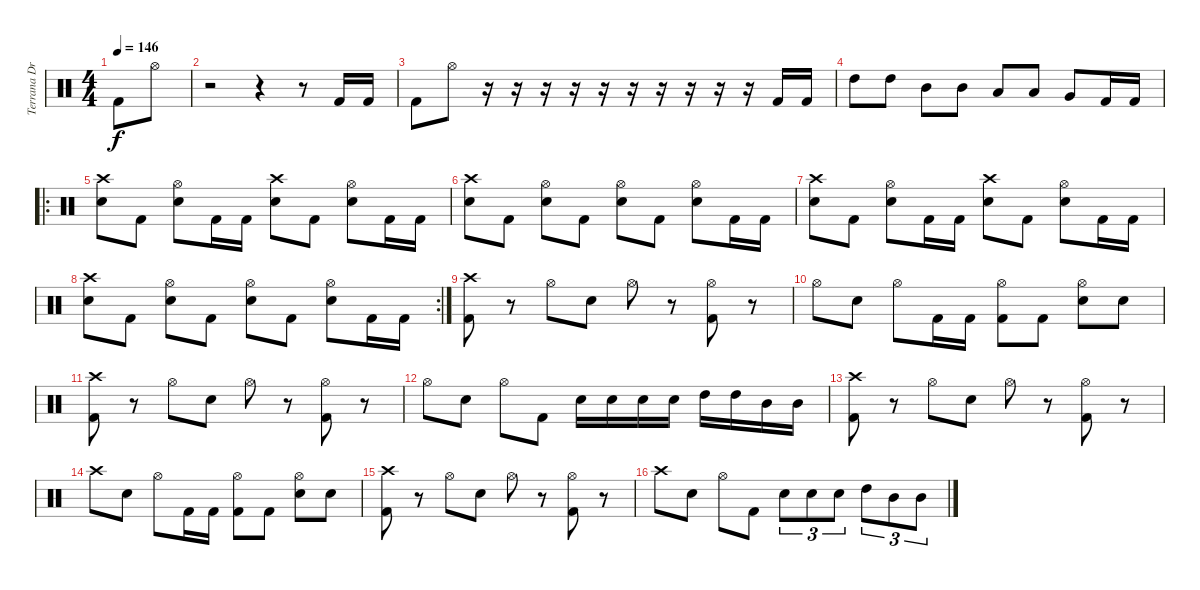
\track ("Terrana Drums" "Terrana Dr") {instrument percussion}
\staff {score}
\articulation defaults
\ts (4 4)
\tempo 146
\clef neutral
\ks c "Kick (hit) 2".8{dy f} "Hi-Hat (open)".8
|
r.2 r.4 r.8 "Kick (hit) 2".16 "Kick (hit) 2".16 |
"Kick (hit) 2".8 "Hi-Hat (open)".8 r.16 r.16 r.16 r.16 r.16 r.16 r.16 r.16 r.16 r.16 "Kick (hit) 2".16 "Kick (hit) 2".16 |
"High Tom (hit)".8 "High Tom (hit)".8 "Mid Tom (hit)".8 "Mid Tom (hit)".8 "Low Tom (hit)".8 "Low Tom (hit)".8 "Very Low Tom (hit)".8 "Kick (hit) 2".16 "Kick (hit) 2".16 |
\ro
("Crash high (hit)" "Electric Snare (hit)").8 "Kick (hit) 2".8 ("Hi-Hat (open)" "Electric Snare (hit)").8 "Kick (hit) 2".16 "Kick (hit) 2".16 ("Crash high (hit)" "Electric Snare (hit)").8 "Kick (hit) 2".8 ("Hi-Hat (open)" "Electric Snare (hit)").8 "Kick (hit) 2".16 "Kick (hit) 2".16 |
("Crash high (hit)" "Electric Snare (hit)").8 "Kick (hit) 2".8 ("Hi-Hat (open)" "Electric Snare (hit)").8 "Kick (hit) 2".8 ("Hi-Hat (open)" "Electric Snare (hit)").8 "Kick (hit) 2".8 ("Hi-Hat (open)" "Electric Snare (hit)").8 "Kick (hit) 2".16 "Kick (hit) 2".16 |
("Crash high (hit)" "Electric Snare (hit)").8 "Kick (hit) 2".8 ("Hi-Hat (open)" "Electric Snare (hit)").8 "Kick (hit) 2".16 "Kick (hit) 2".16 ("Crash high (hit)" "Electric Snare (hit)").8 "Kick (hit) 2".8 ("Hi-Hat (open)" "Electric Snare (hit)").8 "Kick (hit) 2".16 "Kick (hit) 2".16 |
\rc 2
("Crash high (hit)" "Electric Snare (hit)").8 "Kick (hit) 2".8 ("Hi-Hat (open)" "Electric Snare (hit)").8 "Kick (hit) 2".8 ("Hi-Hat (open)" "Electric Snare (hit)").8 "Kick (hit) 2".8 ("Hi-Hat (open)" "Electric Snare (hit)").8 "Kick (hit) 2".16 "Kick (hit) 2".16 |
("Crash high (hit)" "Kick (hit) 2").8 r.8 "Hi-Hat (open)".8 "Electric Snare (hit)".8 "Hi-Hat (open)".8 r.8 ("Hi-Hat (open)" "Kick (hit) 2").8 r.8 |
"Hi-Hat (open)".8 "Electric Snare (hit)".8 "Hi-Hat (open)".8 "Kick (hit) 2".16 "Kick (hit) 2".16 ("Hi-Hat (open)" "Kick (hit) 2").8 "Kick (hit) 2".8 ("Hi-Hat (open)" "Electric Snare (hit)").8 "Electric Snare (hit)".8 |
("Crash high (hit)" "Kick (hit) 2").8 r.8 "Hi-Hat (open)".8 "Electric Snare (hit)".8 "Hi-Hat (open)".8 r.8 ("Hi-Hat (open)" "Kick (hit) 2").8 r.8 |
"Hi-Hat (open)".8 "Electric Snare (hit)".8 "Hi-Hat (open)".8 "Kick (hit) 2".8 "Electric Snare (hit)".16 "Electric Snare (hit)".16 "Electric Snare (hit)".16 "Electric Snare (hit)".16 "High Tom (hit)".16 "High Tom (hit)".16 "Mid Tom (hit)".16 "Mid Tom (hit)".16 |
("Crash high (hit)" "Kick (hit) 2").8 r.8 "Hi-Hat (open)".8 "Electric Snare (hit)".8 "Hi-Hat (open)".8 r.8 ("Hi-Hat (open)" "Kick (hit) 2").8 r.8 |
"Crash high (hit)".8 "Electric Snare (hit)".8 "Hi-Hat (open)".8 "Kick (hit) 2".16 "Kick (hit) 2".16 ("Hi-Hat (open)" "Kick (hit) 2").8 "Kick (hit) 2".8 ("Hi-Hat (open)" "Electric Snare (hit)").8 "Electric Snare (hit)".8 |
("Crash high (hit)" "Kick (hit) 2").8 r.8 "Hi-Hat (open)".8 "Electric Snare (hit)".8 "Hi-Hat (open)".8 r.8 ("Hi-Hat (open)" "Kick (hit) 2").8 r.8 |
"Crash high (hit)".8 "Electric Snare (hit)".8 "Hi-Hat (open)".8 "Kick (hit) 2".8 "Electric Snare (hit)".8{tu (3 2)} "Electric Snare (hit)".8{tu (3 2)} "Electric Snare (hit)".8{tu (3 2)} "High Tom (hit)".8{tu (3 2)} "Mid Tom (hit)".8{tu (3 2)} "Mid Tom (hit)".8{tu (3 2)}
